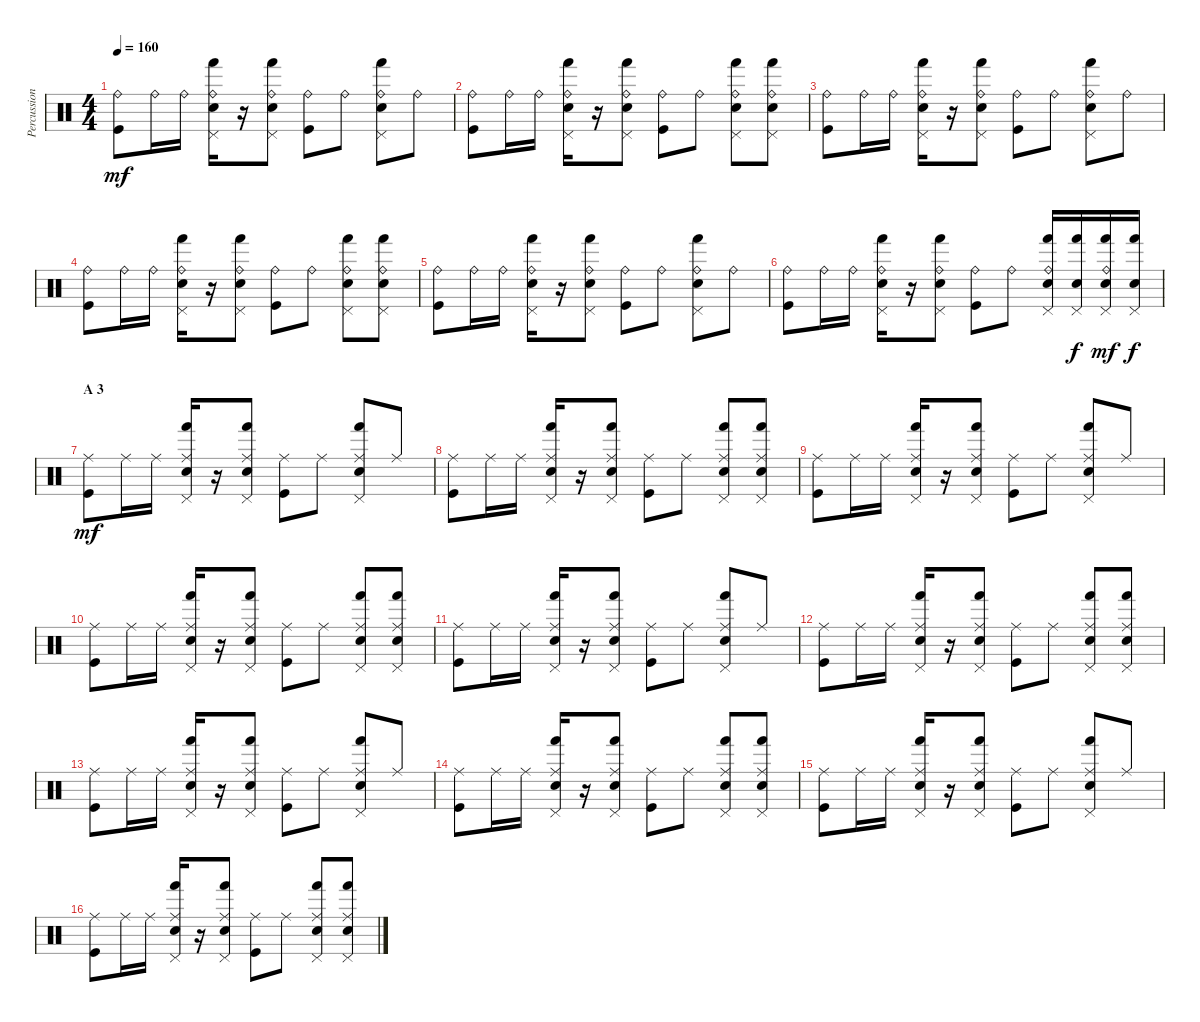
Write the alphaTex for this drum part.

\track ("Percussion" "Percussion") {instrument percussion}
\staff {score}
\articulation defaults
\ts (4 4)
\tempo 160
\clef neutral
\ks c
("Ride (bell)" "Kick (hit)").8{dy mf} "Ride (bell)".16 "Ride (bell)".16 ("Ride (bell)" "Pedal Hi-Hat (hit)" "Hand (hit)" "Electric Snare (hit)").16 r.16 ("Ride (bell)" "Pedal Hi-Hat (hit)" "Hand (hit)" "Electric Snare (hit)").8 ("Ride (bell)" "Kick (hit)").8 "Ride (bell)".8 ("Ride (bell)" "Pedal Hi-Hat (hit)" "Hand (hit)" "Electric Snare (hit)").8 "Ride (bell)".8 |
("Ride (bell)" "Kick (hit)").8 "Ride (bell)".16 "Ride (bell)".16 ("Ride (bell)" "Pedal Hi-Hat (hit)" "Hand (hit)" "Electric Snare (hit)").16 r.16 ("Ride (bell)" "Pedal Hi-Hat (hit)" "Hand (hit)" "Electric Snare (hit)").8 ("Ride (bell)" "Kick (hit)").8 "Ride (bell)".8 ("Ride (bell)" "Pedal Hi-Hat (hit)" "Hand (hit)" "Electric Snare (hit)").8 ("Ride (bell)" "Pedal Hi-Hat (hit)" "Hand (hit)" "Electric Snare (hit)").8 |
("Ride (bell)" "Kick (hit)").8 "Ride (bell)".16 "Ride (bell)".16 ("Ride (bell)" "Pedal Hi-Hat (hit)" "Hand (hit)" "Electric Snare (hit)").16 r.16 ("Ride (bell)" "Pedal Hi-Hat (hit)" "Hand (hit)" "Electric Snare (hit)").8 ("Ride (bell)" "Kick (hit)").8 "Ride (bell)".8 ("Ride (bell)" "Pedal Hi-Hat (hit)" "Hand (hit)" "Electric Snare (hit)").8 "Ride (bell)".8 |
("Ride (bell)" "Kick (hit)").8 "Ride (bell)".16 "Ride (bell)".16 ("Ride (bell)" "Pedal Hi-Hat (hit)" "Hand (hit)" "Electric Snare (hit)").16 r.16 ("Ride (bell)" "Pedal Hi-Hat (hit)" "Hand (hit)" "Electric Snare (hit)").8 ("Ride (bell)" "Kick (hit)").8 "Ride (bell)".8 ("Ride (bell)" "Pedal Hi-Hat (hit)" "Hand (hit)" "Electric Snare (hit)").8 ("Ride (bell)" "Pedal Hi-Hat (hit)" "Hand (hit)" "Electric Snare (hit)").8 |
("Ride (bell)" "Kick (hit)").8 "Ride (bell)".16 "Ride (bell)".16 ("Ride (bell)" "Pedal Hi-Hat (hit)" "Hand (hit)" "Electric Snare (hit)").16 r.16 ("Ride (bell)" "Pedal Hi-Hat (hit)" "Hand (hit)" "Electric Snare (hit)").8 ("Ride (bell)" "Kick (hit)").8 "Ride (bell)".8 ("Ride (bell)" "Pedal Hi-Hat (hit)" "Hand (hit)" "Electric Snare (hit)").8 "Ride (bell)".8 |
("Ride (bell)" "Kick (hit)").8 "Ride (bell)".16 "Ride (bell)".16 ("Ride (bell)" "Pedal Hi-Hat (hit)" "Hand (hit)" "Electric Snare (hit)").16 r.16 ("Ride (bell)" "Pedal Hi-Hat (hit)" "Hand (hit)" "Electric Snare (hit)").8 ("Ride (bell)" "Kick (hit)").8 "Ride (bell)".8 ("Ride (bell)" "Pedal Hi-Hat (hit)" "Hand (hit)" "Electric Snare (hit)").16 ("Pedal Hi-Hat (hit)" "Hand (hit)" "Electric Snare (hit)").16{dy f} ("Ride (bell)" "Pedal Hi-Hat (hit)" "Hand (hit)" "Electric Snare (hit)").16{dy mf} ("Pedal Hi-Hat (hit)" "Hand (hit)" "Electric Snare (hit)").16{dy f} |
\section ("" "A 3")
("Ride (middle)" "Kick (hit)").8{dy mf} "Ride (middle)".16 "Ride (middle)".16 ("Ride (middle)" "Pedal Hi-Hat (hit)" "Hand (hit)" "Electric Snare (hit)").16 r.16 ("Ride (middle)" "Pedal Hi-Hat (hit)" "Hand (hit)" "Electric Snare (hit)").8 ("Ride (middle)" "Kick (hit)").8 "Ride (middle)".8 ("Ride (middle)" "Pedal Hi-Hat (hit)" "Hand (hit)" "Electric Snare (hit)").8 "Ride (middle)".8 |
("Ride (middle)" "Kick (hit)").8 "Ride (middle)".16 "Ride (middle)".16 ("Ride (middle)" "Pedal Hi-Hat (hit)" "Hand (hit)" "Electric Snare (hit)").16 r.16 ("Ride (middle)" "Pedal Hi-Hat (hit)" "Hand (hit)" "Electric Snare (hit)").8 ("Ride (middle)" "Kick (hit)").8 "Ride (middle)".8 ("Ride (middle)" "Pedal Hi-Hat (hit)" "Hand (hit)" "Electric Snare (hit)").8 ("Ride (middle)" "Pedal Hi-Hat (hit)" "Hand (hit)" "Electric Snare (hit)").8 |
("Ride (middle)" "Kick (hit)").8 "Ride (middle)".16 "Ride (middle)".16 ("Ride (middle)" "Pedal Hi-Hat (hit)" "Hand (hit)" "Electric Snare (hit)").16 r.16 ("Ride (middle)" "Pedal Hi-Hat (hit)" "Hand (hit)" "Electric Snare (hit)").8 ("Ride (middle)" "Kick (hit)").8 "Ride (middle)".8 ("Ride (middle)" "Pedal Hi-Hat (hit)" "Hand (hit)" "Electric Snare (hit)").8 "Ride (middle)".8 |
("Ride (middle)" "Kick (hit)").8 "Ride (middle)".16 "Ride (middle)".16 ("Ride (middle)" "Pedal Hi-Hat (hit)" "Hand (hit)" "Electric Snare (hit)").16 r.16 ("Ride (middle)" "Pedal Hi-Hat (hit)" "Hand (hit)" "Electric Snare (hit)").8 ("Ride (middle)" "Kick (hit)").8 "Ride (middle)".8 ("Ride (middle)" "Pedal Hi-Hat (hit)" "Hand (hit)" "Electric Snare (hit)").8 ("Ride (middle)" "Pedal Hi-Hat (hit)" "Hand (hit)" "Electric Snare (hit)").8 |
("Ride (middle)" "Kick (hit)").8 "Ride (middle)".16 "Ride (middle)".16 ("Ride (middle)" "Pedal Hi-Hat (hit)" "Hand (hit)" "Electric Snare (hit)").16 r.16 ("Ride (middle)" "Pedal Hi-Hat (hit)" "Hand (hit)" "Electric Snare (hit)").8 ("Ride (middle)" "Kick (hit)").8 "Ride (middle)".8 ("Ride (middle)" "Pedal Hi-Hat (hit)" "Hand (hit)" "Electric Snare (hit)").8 "Ride (middle)".8 |
("Ride (middle)" "Kick (hit)").8 "Ride (middle)".16 "Ride (middle)".16 ("Ride (middle)" "Pedal Hi-Hat (hit)" "Hand (hit)" "Electric Snare (hit)").16 r.16 ("Ride (middle)" "Pedal Hi-Hat (hit)" "Hand (hit)" "Electric Snare (hit)").8 ("Ride (middle)" "Kick (hit)").8 "Ride (middle)".8 ("Ride (middle)" "Pedal Hi-Hat (hit)" "Hand (hit)" "Electric Snare (hit)").8 ("Ride (middle)" "Pedal Hi-Hat (hit)" "Hand (hit)" "Electric Snare (hit)").8 |
("Ride (middle)" "Kick (hit)").8 "Ride (middle)".16 "Ride (middle)".16 ("Ride (middle)" "Pedal Hi-Hat (hit)" "Hand (hit)" "Electric Snare (hit)").16 r.16 ("Ride (middle)" "Pedal Hi-Hat (hit)" "Hand (hit)" "Electric Snare (hit)").8 ("Ride (middle)" "Kick (hit)").8 "Ride (middle)".8 ("Ride (middle)" "Pedal Hi-Hat (hit)" "Hand (hit)" "Electric Snare (hit)").8 "Ride (middle)".8 |
("Ride (middle)" "Kick (hit)").8 "Ride (middle)".16 "Ride (middle)".16 ("Ride (middle)" "Pedal Hi-Hat (hit)" "Hand (hit)" "Electric Snare (hit)").16 r.16 ("Ride (middle)" "Pedal Hi-Hat (hit)" "Hand (hit)" "Electric Snare (hit)").8 ("Ride (middle)" "Kick (hit)").8 "Ride (middle)".8 ("Ride (middle)" "Pedal Hi-Hat (hit)" "Hand (hit)" "Electric Snare (hit)").8 ("Ride (middle)" "Pedal Hi-Hat (hit)" "Hand (hit)" "Electric Snare (hit)").8 |
("Ride (middle)" "Kick (hit)").8 "Ride (middle)".16 "Ride (middle)".16 ("Ride (middle)" "Pedal Hi-Hat (hit)" "Hand (hit)" "Electric Snare (hit)").16 r.16 ("Ride (middle)" "Pedal Hi-Hat (hit)" "Hand (hit)" "Electric Snare (hit)").8 ("Ride (middle)" "Kick (hit)").8 "Ride (middle)".8 ("Ride (middle)" "Pedal Hi-Hat (hit)" "Hand (hit)" "Electric Snare (hit)").8 "Ride (middle)".8 |
("Ride (middle)" "Kick (hit)").8 "Ride (middle)".16 "Ride (middle)".16 ("Ride (middle)" "Pedal Hi-Hat (hit)" "Hand (hit)" "Electric Snare (hit)").16 r.16 ("Ride (middle)" "Pedal Hi-Hat (hit)" "Hand (hit)" "Electric Snare (hit)").8 ("Ride (middle)" "Kick (hit)").8 "Ride (middle)".8 ("Ride (middle)" "Pedal Hi-Hat (hit)" "Hand (hit)" "Electric Snare (hit)").8 ("Ride (middle)" "Pedal Hi-Hat (hit)" "Hand (hit)" "Electric Snare (hit)").8
